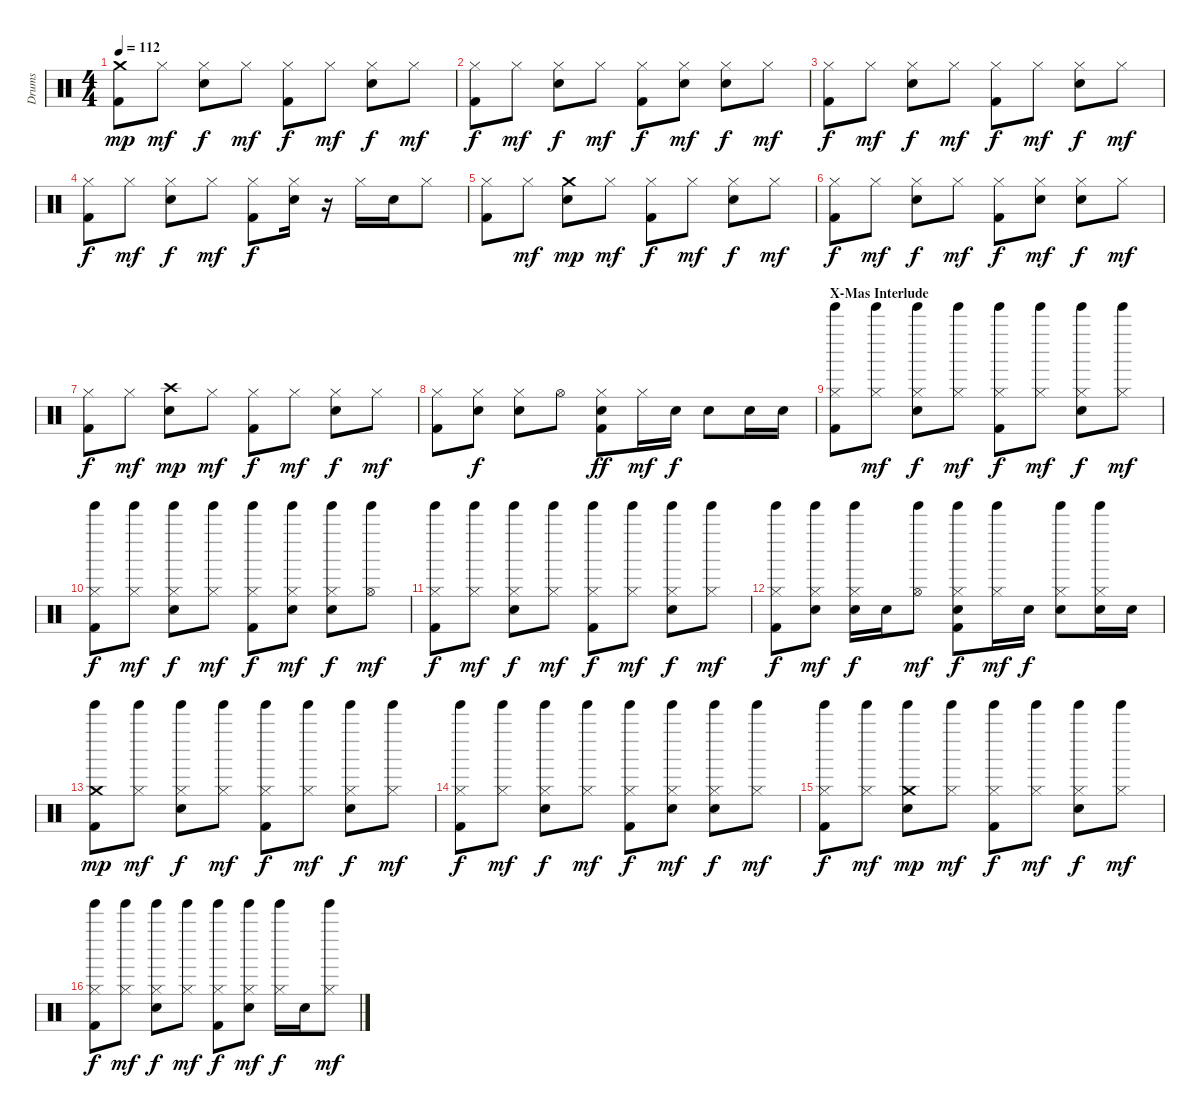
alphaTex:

\track ("Drums" "Drums") {instrument percussion}
\staff {score}
\articulation defaults
\ts (4 4)
\tempo 112
\clef neutral
\ks c
("Crash medium (hit)" "Kick (hit) 2").8{dy mp} "Hi-Hat (closed)".8{dy mf} ("Hi-Hat (closed)" "Snare (hit) 2").8{dy f} "Hi-Hat (closed)".8{dy mf} ("Hi-Hat (closed)" "Kick (hit) 2").8{dy f} "Hi-Hat (closed)".8{dy mf} ("Hi-Hat (closed)" "Snare (hit) 2").8{dy f} "Hi-Hat (closed)".8{dy mf} |
("Hi-Hat (closed)" "Kick (hit) 2").8{dy f} "Hi-Hat (closed)".8{dy mf} ("Hi-Hat (closed)" "Snare (hit) 2").8{dy f} "Hi-Hat (closed)".8{dy mf} ("Hi-Hat (closed)" "Kick (hit) 2").8{dy f} ("Hi-Hat (closed)" "Snare (hit) 2").8{dy mf} ("Hi-Hat (closed)" "Snare (hit) 2").8{dy f} "Hi-Hat (closed)".8{dy mf} |
("Hi-Hat (closed)" "Kick (hit) 2").8{dy f} "Hi-Hat (closed)".8{dy mf} ("Hi-Hat (closed)" "Snare (hit) 2").8{dy f} "Hi-Hat (closed)".8{dy mf} ("Hi-Hat (closed)" "Kick (hit) 2").8{dy f} "Hi-Hat (closed)".8{dy mf} ("Hi-Hat (closed)" "Snare (hit) 2").8{dy f} "Hi-Hat (closed)".8{dy mf} |
("Hi-Hat (closed)" "Kick (hit) 2").8{dy f} "Hi-Hat (closed)".8{dy mf} ("Hi-Hat (closed)" "Snare (hit) 2").8{dy f} "Hi-Hat (closed)".8{dy mf} ("Hi-Hat (closed)" "Kick (hit) 2").8{dy f} ("Hi-Hat (closed)" "Snare (hit) 2").16 r.16 "Hi-Hat (closed)".16 "Snare (hit) 2".16 "Hi-Hat (closed)".8 |
("Hi-Hat (closed)" "Kick (hit) 2").8 "Hi-Hat (closed)".8{dy mf} ("Crash medium (hit)" "Snare (hit) 2").8{dy mp} "Hi-Hat (closed)".8{dy mf} ("Hi-Hat (closed)" "Kick (hit) 2").8{dy f} "Hi-Hat (closed)".8{dy mf} ("Hi-Hat (closed)" "Snare (hit) 2").8{dy f} "Hi-Hat (closed)".8{dy mf} |
("Hi-Hat (closed)" "Kick (hit) 2").8{dy f} "Hi-Hat (closed)".8{dy mf} ("Hi-Hat (closed)" "Snare (hit) 2").8{dy f} "Hi-Hat (closed)".8{dy mf} ("Hi-Hat (closed)" "Kick (hit) 2").8{dy f} ("Hi-Hat (closed)" "Snare (hit) 2").8{dy mf} ("Hi-Hat (closed)" "Snare (hit) 2").8{dy f} "Hi-Hat (closed)".8{dy mf} |
("Hi-Hat (closed)" "Kick (hit) 2").8{dy f} "Hi-Hat (closed)".8{dy mf} ("Crash high (hit)" "Snare (hit) 2").8{dy mp} "Hi-Hat (closed)".8{dy mf} ("Hi-Hat (closed)" "Kick (hit) 2").8{dy f} "Hi-Hat (closed)".8{dy mf} ("Hi-Hat (closed)" "Snare (hit) 2").8{dy f} "Hi-Hat (closed)".8{dy mf} |
("Hi-Hat (closed)" "Kick (hit) 2").8 ("Hi-Hat (closed)" "Snare (hit) 2").8{dy f} ("Hi-Hat (closed)" "Snare (hit) 2").8 "Hi-Hat (open)".8 ("Hi-Hat (closed)" "Snare (hit) 2" "Kick (hit) 2").8{dy ff} "Hi-Hat (closed)".16{dy mf} "Snare (hit) 2".16{dy f} "Snare (hit) 2".8 "Snare (hit) 2".16 "Snare (hit) 2".16 |
\section ("" "X-Mas Interlude")
("Hi-Hat (closed)" "Tinkle Bell (hit)" "Kick (hit) 2").8 ("Hi-Hat (closed)" "Tinkle Bell (hit)").8{dy mf} ("Hi-Hat (closed)" "Tinkle Bell (hit)" "Snare (hit) 2").8{dy f} ("Hi-Hat (closed)" "Tinkle Bell (hit)").8{dy mf} ("Hi-Hat (closed)" "Tinkle Bell (hit)" "Kick (hit) 2").8{dy f} ("Hi-Hat (closed)" "Tinkle Bell (hit)").8{dy mf} ("Hi-Hat (closed)" "Tinkle Bell (hit)" "Snare (hit) 2").8{dy f} ("Hi-Hat (closed)" "Tinkle Bell (hit)").8{dy mf} |
("Hi-Hat (closed)" "Tinkle Bell (hit)" "Kick (hit) 2").8{dy f} ("Hi-Hat (closed)" "Tinkle Bell (hit)").8{dy mf} ("Hi-Hat (closed)" "Tinkle Bell (hit)" "Snare (hit) 2").8{dy f} ("Hi-Hat (closed)" "Tinkle Bell (hit)").8{dy mf} ("Hi-Hat (closed)" "Tinkle Bell (hit)" "Kick (hit) 2").8{dy f} ("Hi-Hat (closed)" "Tinkle Bell (hit)" "Snare (hit) 2").8{dy mf} ("Hi-Hat (closed)" "Tinkle Bell (hit)" "Snare (hit) 2").8{dy f} ("Hi-Hat (open)" "Tinkle Bell (hit)").8{dy mf} |
("Hi-Hat (closed)" "Tinkle Bell (hit)" "Kick (hit) 2").8{dy f} ("Hi-Hat (closed)" "Tinkle Bell (hit)").8{dy mf} ("Hi-Hat (closed)" "Tinkle Bell (hit)" "Snare (hit) 2").8{dy f} ("Hi-Hat (closed)" "Tinkle Bell (hit)").8{dy mf} ("Hi-Hat (closed)" "Tinkle Bell (hit)" "Kick (hit) 2").8{dy f} ("Hi-Hat (closed)" "Tinkle Bell (hit)").8{dy mf} ("Hi-Hat (closed)" "Tinkle Bell (hit)" "Snare (hit) 2").8{dy f} ("Hi-Hat (closed)" "Tinkle Bell (hit)").8{dy mf} |
("Hi-Hat (closed)" "Tinkle Bell (hit)" "Kick (hit) 2").8{dy f} ("Hi-Hat (closed)" "Tinkle Bell (hit)" "Snare (hit) 2").8{dy mf} ("Hi-Hat (closed)" "Tinkle Bell (hit)" "Snare (hit) 2").16{dy f} "Snare (hit) 2".16 ("Hi-Hat (open)" "Tinkle Bell (hit)").8{dy mf} ("Hi-Hat (closed)" "Tinkle Bell (hit)" "Snare (hit) 2" "Kick (hit) 2").8{dy f} ("Hi-Hat (closed)" "Tinkle Bell (hit)").16{dy mf} "Snare (hit) 2".16{dy f} ("Hi-Hat (closed)" "Tinkle Bell (hit)" "Snare (hit) 2").8 ("Hi-Hat (closed)" "Tinkle Bell (hit)" "Snare (hit) 2").16 "Snare (hit) 2".16 |
("Crash medium (hit)" "Tinkle Bell (hit)" "Kick (hit) 2").8{dy mp} ("Hi-Hat (closed)" "Tinkle Bell (hit)").8{dy mf} ("Hi-Hat (closed)" "Tinkle Bell (hit)" "Snare (hit) 2").8{dy f} ("Hi-Hat (closed)" "Tinkle Bell (hit)").8{dy mf} ("Hi-Hat (closed)" "Tinkle Bell (hit)" "Kick (hit) 2").8{dy f} ("Hi-Hat (closed)" "Tinkle Bell (hit)").8{dy mf} ("Hi-Hat (closed)" "Tinkle Bell (hit)" "Snare (hit) 2").8{dy f} ("Hi-Hat (closed)" "Tinkle Bell (hit)").8{dy mf} |
("Hi-Hat (closed)" "Tinkle Bell (hit)" "Kick (hit) 2").8{dy f} ("Hi-Hat (closed)" "Tinkle Bell (hit)").8{dy mf} ("Hi-Hat (closed)" "Tinkle Bell (hit)" "Snare (hit) 2").8{dy f} ("Hi-Hat (closed)" "Tinkle Bell (hit)").8{dy mf} ("Hi-Hat (closed)" "Tinkle Bell (hit)" "Kick (hit) 2").8{dy f} ("Hi-Hat (closed)" "Tinkle Bell (hit)" "Snare (hit) 2").8{dy mf} ("Hi-Hat (closed)" "Tinkle Bell (hit)" "Snare (hit) 2").8{dy f} ("Hi-Hat (closed)" "Tinkle Bell (hit)").8{dy mf} |
("Hi-Hat (closed)" "Tinkle Bell (hit)" "Kick (hit) 2").8{dy f} ("Hi-Hat (closed)" "Tinkle Bell (hit)").8{dy mf} ("Crash medium (hit)" "Tinkle Bell (hit)" "Snare (hit) 2").8{dy mp} ("Hi-Hat (closed)" "Tinkle Bell (hit)").8{dy mf} ("Hi-Hat (closed)" "Tinkle Bell (hit)" "Kick (hit) 2").8{dy f} ("Hi-Hat (closed)" "Tinkle Bell (hit)").8{dy mf} ("Hi-Hat (closed)" "Tinkle Bell (hit)" "Snare (hit) 2").8{dy f} ("Hi-Hat (closed)" "Tinkle Bell (hit)").8{dy mf} |
("Hi-Hat (closed)" "Tinkle Bell (hit)" "Kick (hit) 2").8{dy f} ("Hi-Hat (closed)" "Tinkle Bell (hit)").8{dy mf} ("Hi-Hat (closed)" "Tinkle Bell (hit)" "Snare (hit) 2").8{dy f} ("Hi-Hat (closed)" "Tinkle Bell (hit)").8{dy mf} ("Hi-Hat (closed)" "Tinkle Bell (hit)" "Kick (hit) 2").8{dy f} ("Hi-Hat (closed)" "Tinkle Bell (hit)" "Snare (hit) 2").8{dy mf} ("Hi-Hat (closed)" "Tinkle Bell (hit)").16{dy f} "Snare (hit) 2".16 ("Hi-Hat (closed)" "Tinkle Bell (hit)").8{dy mf}
